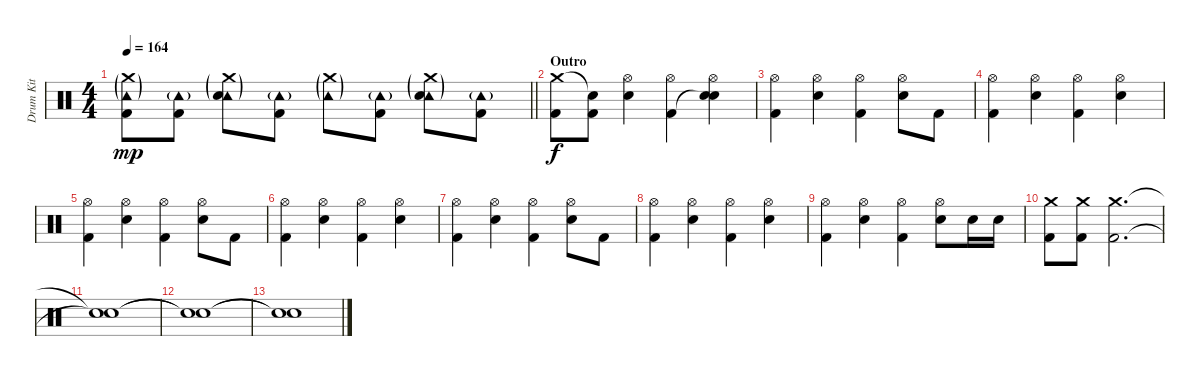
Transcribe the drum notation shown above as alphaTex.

\track ("Drum Kit" "Drum Kit") {instrument percussion}
\staff {score}
\articulation defaults
\ts (4 4)
\tempo 164
\clef neutral
\barLineRight lightlight
\ks c
("Crash medium (hit)"{g} "Tambourine (hit)"{g} "Kick (hit) 2").8{dy mp} ("Tambourine (hit)"{g} "Kick (hit) 2").8 ("Crash medium (hit)"{g} "Tambourine (hit)"{g} "Electric Snare (hit)").8 ("Tambourine (hit)"{g} "Kick (hit) 2").8 ("Crash medium (hit)"{g} "Tambourine (hit)"{g}).8 ("Tambourine (hit)"{g} "Kick (hit) 2").8 ("Crash medium (hit)"{g} "Tambourine (hit)"{g} "Electric Snare (hit)").8 ("Tambourine (hit)"{g} "Kick (hit) 2").8 |
\section ("" "Outro")
("Crash medium (hit)" "Kick (hit) 2").8{dy f} ("Snare (hit)"{t} "Kick (hit) 2").8 ("Hi-Hat (open)" "Electric Snare (hit)").4 ("Hi-Hat (open)" "Kick (hit) 2").4 ("Hi-Hat (open)" "Snare (hit)"{t} "Electric Snare (hit)").4 |
("Hi-Hat (open)" "Kick (hit) 2").4 ("Hi-Hat (open)" "Electric Snare (hit)").4 ("Hi-Hat (open)" "Kick (hit) 2").4 ("Hi-Hat (open)" "Electric Snare (hit)").8 "Kick (hit) 2".8 |
("Hi-Hat (open)" "Kick (hit) 2").4 ("Hi-Hat (open)" "Electric Snare (hit)").4 ("Hi-Hat (open)" "Kick (hit) 2").4 ("Hi-Hat (open)" "Electric Snare (hit)").4 |
("Hi-Hat (open)" "Kick (hit) 2").4 ("Hi-Hat (open)" "Electric Snare (hit)").4 ("Hi-Hat (open)" "Kick (hit) 2").4 ("Hi-Hat (open)" "Electric Snare (hit)").8 "Kick (hit) 2".8 |
("Hi-Hat (open)" "Kick (hit) 2").4 ("Hi-Hat (open)" "Electric Snare (hit)").4 ("Hi-Hat (open)" "Kick (hit) 2").4 ("Hi-Hat (open)" "Electric Snare (hit)").4 |
("Hi-Hat (open)" "Kick (hit) 2").4 ("Hi-Hat (open)" "Electric Snare (hit)").4 ("Hi-Hat (open)" "Kick (hit) 2").4 ("Hi-Hat (open)" "Electric Snare (hit)").8 "Kick (hit) 2".8 |
("Hi-Hat (open)" "Kick (hit) 2").4 ("Hi-Hat (open)" "Electric Snare (hit)").4 ("Hi-Hat (open)" "Kick (hit) 2").4 ("Hi-Hat (open)" "Electric Snare (hit)").4 |
("Hi-Hat (open)" "Kick (hit) 2").4 ("Hi-Hat (open)" "Electric Snare (hit)").4 ("Hi-Hat (open)" "Kick (hit) 2").4 ("Hi-Hat (open)" "Electric Snare (hit)").8 "Electric Snare (hit)".16 "Electric Snare (hit)".16 |
("Crash medium (hit)" "Kick (hit) 2").8 ("Crash medium (hit)" "Kick (hit) 2").8 ("Crash medium (hit)" "Kick (hit) 2").2{d} |
("Snare (hit)"{t} "Snare (hit)"{t}).1 |
("Snare (hit)"{t} "Snare (hit)"{t}).1 |
("Snare (hit)"{t} "Snare (hit)"{t}).1
